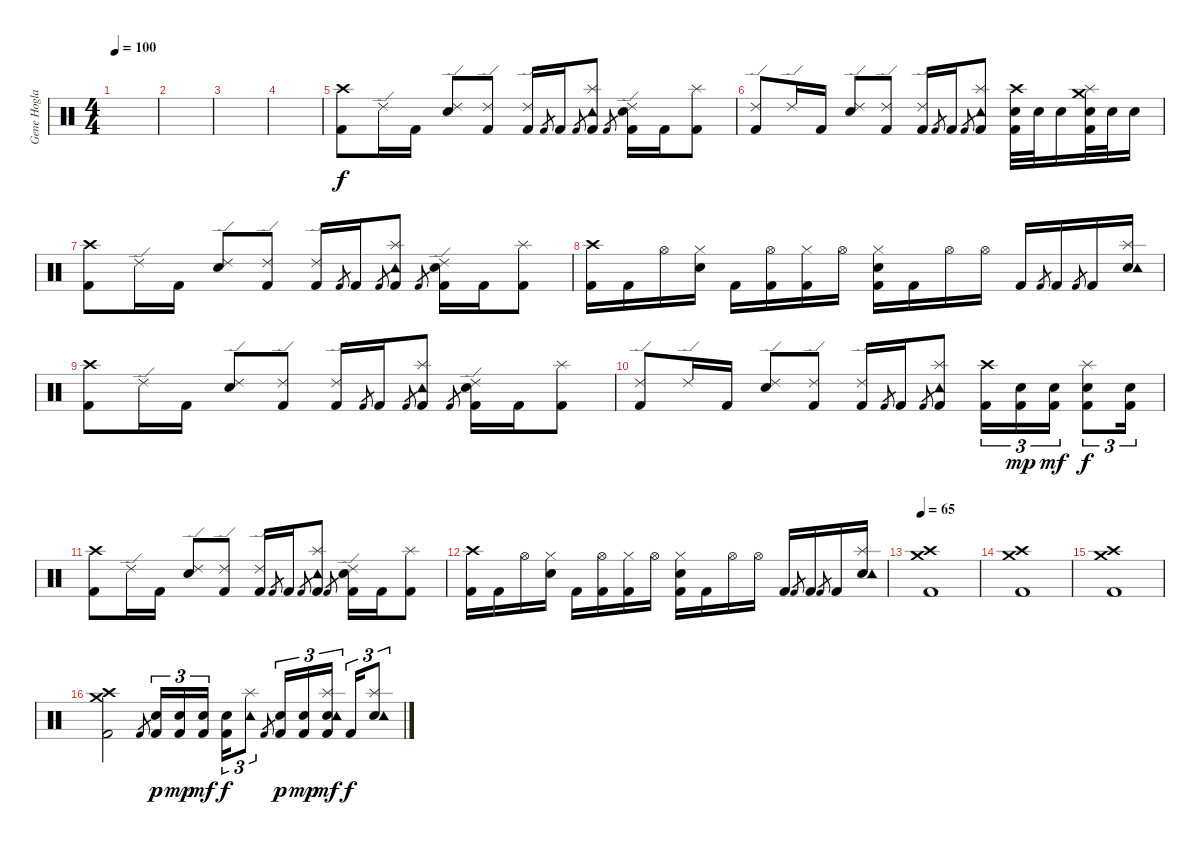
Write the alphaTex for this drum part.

\track ("Gene Hoglan" "Gene Hogla") {instrument percussion}
\staff {score}
\articulation defaults
\ts (4 4)
\tempo 100
\clef neutral
\ks c
|
|
|
|
("Kick (hit) 2" "Crash high (hit)").8 "Ride (edge) 2".16 "Kick (hit) 2".16 ("Electric Snare (hit)" "Ride (edge) 2").8 ("Kick (hit) 2" "Ride (edge) 2").8 ("Kick (hit) 2" "Ride (edge) 2").16 "Kick (hit) 2".8{gr} "Kick (hit) 2".16 "Kick (hit) 2".8{gr} ("Kick (hit) 2" "Splash (hit)" "Tambourine (hit)").8 "Kick (hit) 2".8{gr} ("Kick (hit) 2" "Electric Snare (hit)" "Ride (edge) 2").16 "Kick (hit) 2".16 ("Kick (hit) 2" "Splash (hit)").8 |
("Kick (hit) 2" "Ride (edge) 2").8 "Ride (edge) 2".16 "Kick (hit) 2".16 ("Electric Snare (hit)" "Ride (edge) 2").8 ("Kick (hit) 2" "Ride (edge) 2").8 ("Kick (hit) 2" "Ride (edge) 2").16 "Kick (hit) 2".8{gr} "Kick (hit) 2".16 "Kick (hit) 2".8{gr} ("Kick (hit) 2" "Splash (hit)" "Tambourine (hit)").8 ("Kick (hit) 2" "Electric Snare (hit)" "Crash high (hit)").32 "Electric Snare (hit)".32 "Electric Snare (hit)".16 ("Kick (hit) 2" "Electric Snare (hit)" "Crash medium (hit)" "Splash (hit)").32 "Electric Snare (hit)".32 "Electric Snare (hit)".16 |
("Kick (hit) 2" "Crash high (hit)").8 "Ride (edge) 2".16 "Kick (hit) 2".16 ("Electric Snare (hit)" "Ride (edge) 2").8 ("Kick (hit) 2" "Ride (edge) 2").8 ("Kick (hit) 2" "Ride (edge) 2").16 "Kick (hit) 2".8{gr} "Kick (hit) 2".16 "Kick (hit) 2".8{gr} ("Kick (hit) 2" "Splash (hit)" "Tambourine (hit)").8 "Kick (hit) 2".8{gr} ("Kick (hit) 2" "Electric Snare (hit)" "Ride (edge) 2").16 "Kick (hit) 2".16 ("Kick (hit) 2" "Splash (hit)").8 |
("Kick (hit) 2" "Crash high (hit)").16 "Kick (hit) 2".16 "Hi-Hat (open)".16 ("Electric Snare (hit)" "Hi-Hat (closed)").16 "Kick (hit) 2".16 ("Kick (hit) 2" "Hi-Hat (open)").16 ("Kick (hit) 2" "Hi-Hat (closed)").16 "Hi-Hat (open)".16 ("Kick (hit) 2" "Electric Snare (hit)" "Hi-Hat (closed)").16 "Kick (hit) 2".16 "Hi-Hat (open)".16 "Hi-Hat (open)".16 "Kick (hit) 2".16 "Kick (hit) 2".8{gr} "Kick (hit) 2".16 "Kick (hit) 2".8{gr} "Kick (hit) 2".16 ("Electric Snare (hit)" "Splash (hit)" "Tambourine (hit)").16 |
("Kick (hit) 2" "Crash high (hit)").8 "Ride (edge) 2".16 "Kick (hit) 2".16 ("Electric Snare (hit)" "Ride (edge) 2").8 ("Kick (hit) 2" "Ride (edge) 2").8 ("Kick (hit) 2" "Ride (edge) 2").16 "Kick (hit) 2".8{gr} "Kick (hit) 2".16 "Kick (hit) 2".8{gr} ("Kick (hit) 2" "Splash (hit)" "Tambourine (hit)").8 "Kick (hit) 2".8{gr} ("Kick (hit) 2" "Electric Snare (hit)" "Ride (edge) 2").16 "Kick (hit) 2".16 ("Kick (hit) 2" "Splash (hit)").8 |
("Kick (hit) 2" "Ride (edge) 2").8 "Ride (edge) 2".16 "Kick (hit) 2".16 ("Electric Snare (hit)" "Ride (edge) 2").8 ("Kick (hit) 2" "Ride (edge) 2").8 ("Kick (hit) 2" "Ride (edge) 2").16 "Kick (hit) 2".8{gr} "Kick (hit) 2".16 "Kick (hit) 2".8{gr} ("Kick (hit) 2" "Splash (hit)" "Tambourine (hit)").8 ("Kick (hit) 2" "Crash high (hit)").16{tu (3 2)} ("Kick (hit) 2" "Electric Snare (hit)").16{tu (3 2) dy mp} ("Kick (hit) 2" "Electric Snare (hit)").16{tu (3 2) dy mf} ("Kick (hit) 2" "Electric Snare (hit)" "Splash (hit)").8{tu (3 2) dy f} ("Kick (hit) 2" "Electric Snare (hit)").16{tu (3 2)} |
("Kick (hit) 2" "Crash high (hit)").8 "Ride (edge) 2".16 "Kick (hit) 2".16 ("Electric Snare (hit)" "Ride (edge) 2").8 ("Kick (hit) 2" "Ride (edge) 2").8 ("Kick (hit) 2" "Ride (edge) 2").16 "Kick (hit) 2".8{gr} "Kick (hit) 2".16 "Kick (hit) 2".8{gr} ("Kick (hit) 2" "Splash (hit)" "Tambourine (hit)").8 "Kick (hit) 2".8{gr} ("Kick (hit) 2" "Electric Snare (hit)" "Ride (edge) 2").16 "Kick (hit) 2".16 ("Kick (hit) 2" "Splash (hit)").8 |
("Kick (hit) 2" "Crash high (hit)").16 "Kick (hit) 2".16 "Hi-Hat (open)".16 ("Electric Snare (hit)" "Hi-Hat (closed)").16 "Kick (hit) 2".16 ("Kick (hit) 2" "Hi-Hat (open)").16 ("Kick (hit) 2" "Hi-Hat (closed)").16 "Hi-Hat (open)".16 ("Kick (hit) 2" "Electric Snare (hit)" "Hi-Hat (closed)").16 "Kick (hit) 2".16 "Hi-Hat (open)".16 "Hi-Hat (open)".16 "Kick (hit) 2".16 "Kick (hit) 2".8{gr} "Kick (hit) 2".16 "Kick (hit) 2".8{gr} "Kick (hit) 2".16 ("Electric Snare (hit)" "Splash (hit)" "Tambourine (hit)").16 |
\tempo 65
("Kick (hit) 2" "Crash high (hit)" "Crash medium (hit)").1 |
("Kick (hit) 2" "Crash high (hit)" "Crash medium (hit)").1 |
("Kick (hit) 2" "Crash high (hit)" "Crash medium (hit)").1 |
("Kick (hit) 2" "Crash high (hit)" "Crash medium (hit)").2 "Kick (hit) 2".8{gr} ("Kick (hit) 2" "Electric Snare (hit)").16{tu (3 2) dy p} ("Kick (hit) 2" "Electric Snare (hit)").16{tu (3 2) dy mp} ("Kick (hit) 2" "Electric Snare (hit)").16{tu (3 2) dy mf} ("Kick (hit) 2" "Electric Snare (hit)").16{tu (3 2) dy f} ("Splash (hit)" "Tambourine (hit)").8{tu (3 2)} "Kick (hit) 2".8{gr} ("Kick (hit) 2" "Electric Snare (hit)").16{tu (3 2) dy p} ("Kick (hit) 2" "Electric Snare (hit)").16{tu (3 2) dy mp} ("Kick (hit) 2" "Electric Snare (hit)" "Splash (hit)" "Tambourine (hit)").16{tu (3 2) dy mf} "Kick (hit) 2".16{tu (3 2) dy f} ("Electric Snare (hit)" "Splash (hit)" "Tambourine (hit)").8{tu (3 2)}
